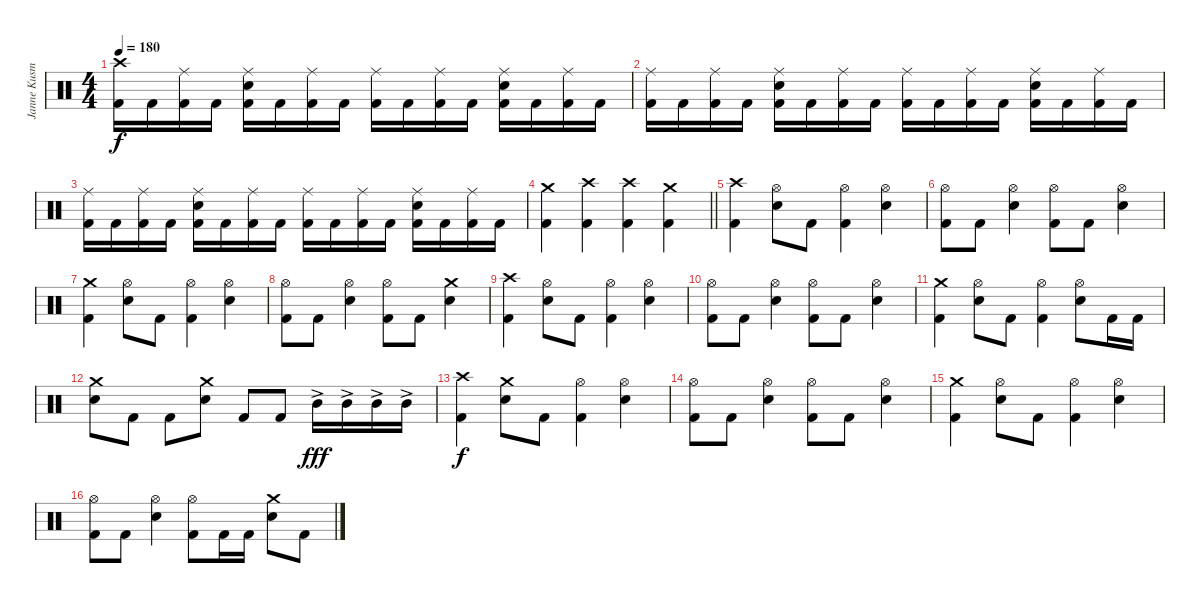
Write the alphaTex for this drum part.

\track ("Janne Kusmin - Drums" "Janne Kusm") {instrument percussion}
\staff {score}
\articulation defaults
\ts (4 4)
\tempo 180
\clef neutral
\ks c
("Crash high (hit)" "Kick (hit) 2").16{dy f} "Kick (hit) 2".16 ("Ride (middle)" "Kick (hit) 2").16 "Kick (hit) 2".16 ("Ride (middle)" "Electric Snare (hit)" "Kick (hit) 2").16 "Kick (hit) 2".16 ("Ride (middle)" "Kick (hit) 2").16 "Kick (hit) 2".16 ("Ride (middle)" "Kick (hit) 2").16 "Kick (hit) 2".16 ("Ride (middle)" "Kick (hit) 2").16 "Kick (hit) 2".16 ("Ride (middle)" "Electric Snare (hit)" "Kick (hit) 2").16 "Kick (hit) 2".16 ("Ride (middle)" "Kick (hit) 2").16 "Kick (hit) 2".16 |
("Ride (middle)" "Kick (hit) 2").16 "Kick (hit) 2".16 ("Ride (middle)" "Kick (hit) 2").16 "Kick (hit) 2".16 ("Ride (middle)" "Electric Snare (hit)" "Kick (hit) 2").16 "Kick (hit) 2".16 ("Ride (middle)" "Kick (hit) 2").16 "Kick (hit) 2".16 ("Ride (middle)" "Kick (hit) 2").16 "Kick (hit) 2".16 ("Ride (middle)" "Kick (hit) 2").16 "Kick (hit) 2".16 ("Ride (middle)" "Electric Snare (hit)" "Kick (hit) 2").16 "Kick (hit) 2".16 ("Ride (middle)" "Kick (hit) 2").16 "Kick (hit) 2".16 |
("Ride (middle)" "Kick (hit) 2").16 "Kick (hit) 2".16 ("Ride (middle)" "Kick (hit) 2").16 "Kick (hit) 2".16 ("Ride (middle)" "Electric Snare (hit)" "Kick (hit) 2").16 "Kick (hit) 2".16 ("Ride (middle)" "Kick (hit) 2").16 "Kick (hit) 2".16 ("Ride (middle)" "Kick (hit) 2").16 "Kick (hit) 2".16 ("Ride (middle)" "Kick (hit) 2").16 "Kick (hit) 2".16 ("Ride (middle)" "Electric Snare (hit)" "Kick (hit) 2").16 "Kick (hit) 2".16 ("Ride (middle)" "Kick (hit) 2").16 "Kick (hit) 2".16 |
\barLineRight lightlight
("Crash medium (hit)" "Kick (hit) 2").4 ("Crash high (hit)" "Kick (hit) 2").4 ("Crash high (hit)" "Kick (hit) 2").4 ("Crash medium (hit)" "Kick (hit) 2").4 |
\section ("" "")
("Crash high (hit)" "Kick (hit) 2").4 ("Hi-Hat (open)" "Electric Snare (hit)").8 "Kick (hit) 2".8 ("Hi-Hat (open)" "Kick (hit) 2").4 ("Hi-Hat (open)" "Electric Snare (hit)").4 |
("Hi-Hat (open)" "Kick (hit) 2").8 "Kick (hit) 2".8 ("Hi-Hat (open)" "Electric Snare (hit)").4 ("Hi-Hat (open)" "Kick (hit) 2").8 "Kick (hit) 2".8 ("Hi-Hat (open)" "Electric Snare (hit)").4 |
("Crash medium (hit)" "Kick (hit) 2").4 ("Hi-Hat (open)" "Electric Snare (hit)").8 "Kick (hit) 2".8 ("Hi-Hat (open)" "Kick (hit) 2").4 ("Hi-Hat (open)" "Electric Snare (hit)").4 |
("Hi-Hat (open)" "Kick (hit) 2").8 "Kick (hit) 2".8 ("Hi-Hat (open)" "Electric Snare (hit)").4 ("Hi-Hat (open)" "Kick (hit) 2").8 "Kick (hit) 2".8 ("Crash medium (hit)" "Electric Snare (hit)").4 |
("Crash high (hit)" "Kick (hit) 2").4 ("Hi-Hat (open)" "Electric Snare (hit)").8 "Kick (hit) 2".8 ("Hi-Hat (open)" "Kick (hit) 2").4 ("Hi-Hat (open)" "Electric Snare (hit)").4 |
("Hi-Hat (open)" "Kick (hit) 2").8 "Kick (hit) 2".8 ("Hi-Hat (open)" "Electric Snare (hit)").4 ("Hi-Hat (open)" "Kick (hit) 2").8 "Kick (hit) 2".8 ("Hi-Hat (open)" "Electric Snare (hit)").4 |
("Crash medium (hit)" "Kick (hit) 2").4 ("Hi-Hat (open)" "Electric Snare (hit)").8 "Kick (hit) 2".8 ("Hi-Hat (open)" "Kick (hit) 2").4 ("Hi-Hat (open)" "Electric Snare (hit)").8 "Kick (hit) 2".16 "Kick (hit) 2".16 |
("Crash medium (hit)" "Electric Snare (hit)").8 "Kick (hit) 2".8 "Kick (hit) 2".8 ("Crash medium (hit)" "Electric Snare (hit)").8 "Kick (hit) 2".8 "Kick (hit) 2".8 "Mid Tom (hit)"{ac}.16{dy fff} "Mid Tom (hit)"{ac}.16 "Mid Tom (hit)"{ac}.16 "Mid Tom (hit)"{ac}.16 |
("Crash high (hit)" "Kick (hit) 2").4{dy f} ("Crash medium (hit)" "Electric Snare (hit)").8 "Kick (hit) 2".8 ("Hi-Hat (open)" "Kick (hit) 2").4 ("Hi-Hat (open)" "Electric Snare (hit)").4 |
("Hi-Hat (open)" "Kick (hit) 2").8 "Kick (hit) 2".8 ("Hi-Hat (open)" "Electric Snare (hit)").4 ("Hi-Hat (open)" "Kick (hit) 2").8 "Kick (hit) 2".8 ("Hi-Hat (open)" "Electric Snare (hit)").4 |
("Crash medium (hit)" "Kick (hit) 2").4 ("Hi-Hat (open)" "Electric Snare (hit)").8 "Kick (hit) 2".8 ("Hi-Hat (open)" "Kick (hit) 2").4 ("Hi-Hat (open)" "Electric Snare (hit)").4 |
("Hi-Hat (open)" "Kick (hit) 2").8 "Kick (hit) 2".8 ("Hi-Hat (open)" "Electric Snare (hit)").4 ("Hi-Hat (open)" "Kick (hit) 2").8 "Kick (hit) 2".16 "Kick (hit) 2".16 ("Crash medium (hit)" "Electric Snare (hit)").8 "Kick (hit) 2".8
